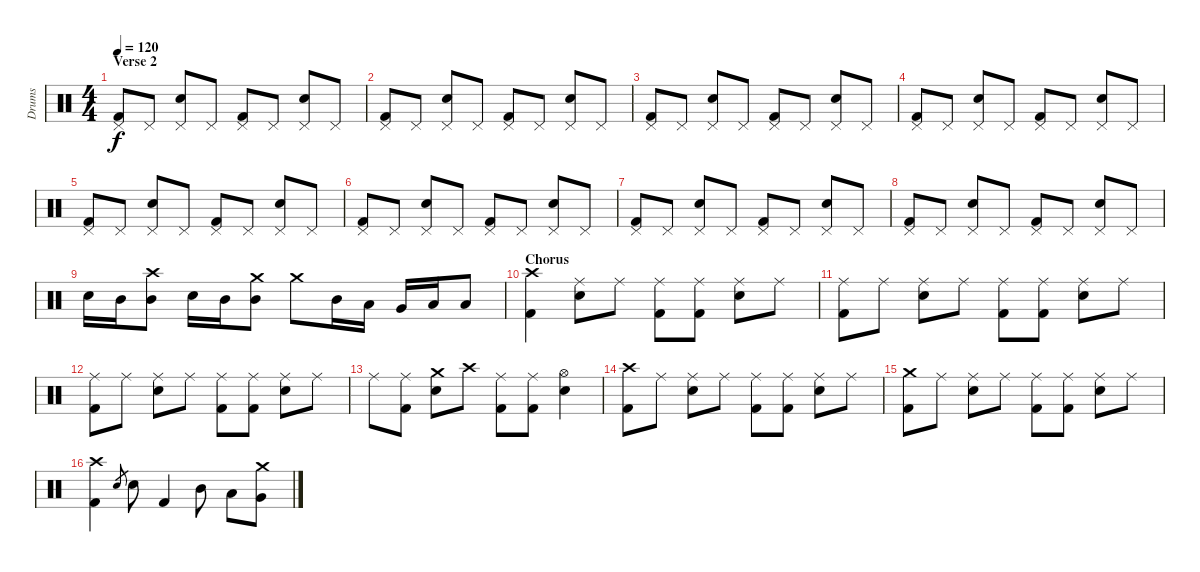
\track ("Drums" "Drums") {instrument percussion}
\staff {score}
\articulation defaults
\ts (4 4)
\section ("" "Verse 2")
\tempo 120
\clef neutral
\ks c
("Pedal Hi-Hat (hit)" "Kick (hit) 2").8{dy f} "Pedal Hi-Hat (hit)".8 ("Pedal Hi-Hat (hit)" "Electric Snare (hit)").8 "Pedal Hi-Hat (hit)".8 ("Pedal Hi-Hat (hit)" "Kick (hit) 2").8 "Pedal Hi-Hat (hit)".8 ("Pedal Hi-Hat (hit)" "Electric Snare (hit)").8 "Pedal Hi-Hat (hit)".8 |
("Pedal Hi-Hat (hit)" "Kick (hit) 2").8 "Pedal Hi-Hat (hit)".8 ("Pedal Hi-Hat (hit)" "Electric Snare (hit)").8 "Pedal Hi-Hat (hit)".8 ("Pedal Hi-Hat (hit)" "Kick (hit) 2").8 "Pedal Hi-Hat (hit)".8 ("Pedal Hi-Hat (hit)" "Electric Snare (hit)").8 "Pedal Hi-Hat (hit)".8 |
("Pedal Hi-Hat (hit)" "Kick (hit) 2").8 "Pedal Hi-Hat (hit)".8 ("Pedal Hi-Hat (hit)" "Electric Snare (hit)").8 "Pedal Hi-Hat (hit)".8 ("Pedal Hi-Hat (hit)" "Kick (hit) 2").8 "Pedal Hi-Hat (hit)".8 ("Pedal Hi-Hat (hit)" "Electric Snare (hit)").8 "Pedal Hi-Hat (hit)".8 |
("Pedal Hi-Hat (hit)" "Kick (hit) 2").8 "Pedal Hi-Hat (hit)".8 ("Pedal Hi-Hat (hit)" "Electric Snare (hit)").8 "Pedal Hi-Hat (hit)".8 ("Pedal Hi-Hat (hit)" "Kick (hit) 2").8 "Pedal Hi-Hat (hit)".8 ("Pedal Hi-Hat (hit)" "Electric Snare (hit)").8 "Pedal Hi-Hat (hit)".8 |
("Pedal Hi-Hat (hit)" "Kick (hit) 2").8 "Pedal Hi-Hat (hit)".8 ("Pedal Hi-Hat (hit)" "Electric Snare (hit)").8 "Pedal Hi-Hat (hit)".8 ("Pedal Hi-Hat (hit)" "Kick (hit) 2").8 "Pedal Hi-Hat (hit)".8 ("Pedal Hi-Hat (hit)" "Electric Snare (hit)").8 "Pedal Hi-Hat (hit)".8 |
("Pedal Hi-Hat (hit)" "Kick (hit) 2").8 "Pedal Hi-Hat (hit)".8 ("Pedal Hi-Hat (hit)" "Electric Snare (hit)").8 "Pedal Hi-Hat (hit)".8 ("Pedal Hi-Hat (hit)" "Kick (hit) 2").8 "Pedal Hi-Hat (hit)".8 ("Pedal Hi-Hat (hit)" "Electric Snare (hit)").8 "Pedal Hi-Hat (hit)".8 |
("Pedal Hi-Hat (hit)" "Kick (hit) 2").8 "Pedal Hi-Hat (hit)".8 ("Pedal Hi-Hat (hit)" "Electric Snare (hit)").8 "Pedal Hi-Hat (hit)".8 ("Pedal Hi-Hat (hit)" "Kick (hit) 2").8 "Pedal Hi-Hat (hit)".8 ("Pedal Hi-Hat (hit)" "Electric Snare (hit)").8 "Pedal Hi-Hat (hit)".8 |
("Pedal Hi-Hat (hit)" "Kick (hit) 2").8 "Pedal Hi-Hat (hit)".8 ("Pedal Hi-Hat (hit)" "Electric Snare (hit)").8 "Pedal Hi-Hat (hit)".8 ("Pedal Hi-Hat (hit)" "Kick (hit) 2").8 "Pedal Hi-Hat (hit)".8 ("Pedal Hi-Hat (hit)" "Electric Snare (hit)").8 "Pedal Hi-Hat (hit)".8 |
"Electric Snare (hit)".16 "Mid Tom (hit)".16 ("Crash high (hit)" "Mid Tom (hit)").8 "Electric Snare (hit)".16 "Mid Tom (hit)".16 ("Crash medium (hit)" "Mid Tom (hit)").8 "Crash medium (hit)".8 "Mid Tom (hit)".16 "Low Tom (hit)".16 "Very Low Tom (hit)".16 "Low Floor Tom (hit)".16 "Low Floor Tom (hit)".8 |
\section ("" "Chorus")
("Crash high (hit)" "Kick (hit) 2").4 ("Ride (middle)" "Electric Snare (hit)").8 "Ride (middle)".8 ("Ride (middle)" "Kick (hit) 2").8 ("Ride (middle)" "Kick (hit) 2").8 ("Ride (middle)" "Electric Snare (hit)").8 "Ride (middle)".8 |
("Ride (middle)" "Kick (hit) 2").8 "Ride (middle)".8 ("Ride (middle)" "Electric Snare (hit)").8 "Ride (middle)".8 ("Ride (middle)" "Kick (hit) 2").8 ("Ride (middle)" "Kick (hit) 2").8 ("Ride (middle)" "Electric Snare (hit)").8 "Ride (middle)".8 |
("Ride (middle)" "Kick (hit) 2").8 "Ride (middle)".8 ("Ride (middle)" "Electric Snare (hit)").8 "Ride (middle)".8 ("Ride (middle)" "Kick (hit) 2").8 ("Ride (middle)" "Kick (hit) 2").8 ("Ride (middle)" "Electric Snare (hit)").8 "Ride (middle)".8 |
"Ride (middle)".8 ("Ride (middle)" "Kick (hit) 2").8 ("Crash medium (hit)" "Electric Snare (hit)").8 "Crash high (hit)".8 ("Ride (middle)" "Kick (hit) 2").8 ("Ride (middle)" "Kick (hit) 2").8 ("Hi-Hat (open)" "Electric Snare (hit)").4 |
("Crash high (hit)" "Kick (hit) 2").8 "Ride (middle)".8 ("Ride (middle)" "Electric Snare (hit)").8 "Ride (middle)".8 ("Ride (middle)" "Kick (hit) 2").8 ("Ride (middle)" "Kick (hit) 2").8 ("Ride (middle)" "Electric Snare (hit)").8 "Ride (middle)".8 |
("Crash medium (hit)" "Kick (hit) 2").8 "Ride (middle)".8 ("Ride (middle)" "Electric Snare (hit)").8 "Ride (middle)".8 ("Ride (middle)" "Kick (hit) 2").8 ("Ride (middle)" "Kick (hit) 2").8 ("Ride (middle)" "Electric Snare (hit)").8 "Ride (middle)".8 |
("Crash high (hit)" "Kick (hit) 2").4 "Electric Snare (hit)".8{gr} "Electric Snare (hit)".8 "Kick (hit) 2".4 "Mid Tom (hit)".8 "Low Tom (hit)".8 ("Crash medium (hit)" "Very Low Tom (hit)").8
